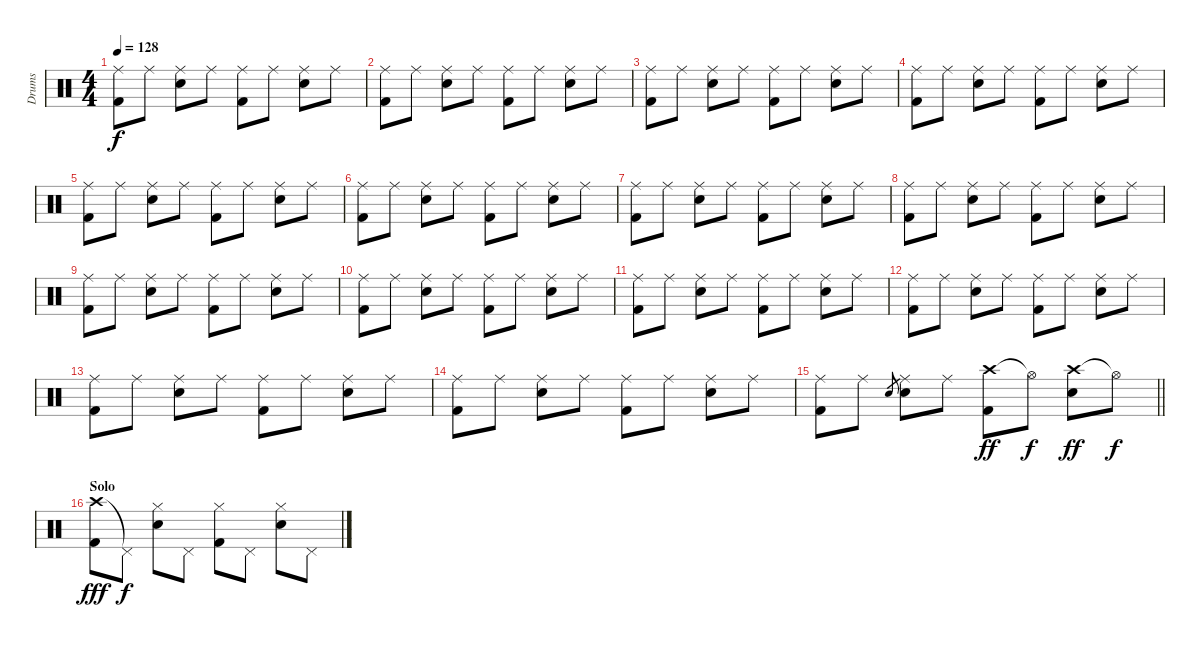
\track ("Drums" "Drums") {instrument percussion}
\staff {score}
\articulation defaults
\ts (4 4)
\tempo 128
\clef neutral
\ks c
("Ride (middle)" "Kick (hit) 2").8{dy f} "Ride (middle)".8 ("Ride (middle)" "Snare (hit) 2").8 "Ride (middle)".8 ("Ride (middle)" "Kick (hit) 2").8 "Ride (middle)".8 ("Ride (middle)" "Snare (hit) 2").8 "Ride (middle)".8 |
("Ride (middle)" "Kick (hit) 2").8 "Ride (middle)".8 ("Ride (middle)" "Snare (hit) 2").8 "Ride (middle)".8 ("Ride (middle)" "Kick (hit) 2").8 "Ride (middle)".8 ("Ride (middle)" "Snare (hit) 2").8 "Ride (middle)".8 |
("Ride (middle)" "Kick (hit) 2").8 "Ride (middle)".8 ("Ride (middle)" "Snare (hit) 2").8 "Ride (middle)".8 ("Ride (middle)" "Kick (hit) 2").8 "Ride (middle)".8 ("Ride (middle)" "Snare (hit) 2").8 "Ride (middle)".8 |
("Ride (middle)" "Kick (hit) 2").8 "Ride (middle)".8 ("Ride (middle)" "Snare (hit) 2").8 "Ride (middle)".8 ("Ride (middle)" "Kick (hit) 2").8 "Ride (middle)".8 ("Ride (middle)" "Snare (hit) 2").8 "Ride (middle)".8 |
("Ride (middle)" "Kick (hit) 2").8 "Ride (middle)".8 ("Ride (middle)" "Snare (hit) 2").8 "Ride (middle)".8 ("Ride (middle)" "Kick (hit) 2").8 "Ride (middle)".8 ("Ride (middle)" "Snare (hit) 2").8 "Ride (middle)".8 |
("Ride (middle)" "Kick (hit) 2").8 "Ride (middle)".8 ("Ride (middle)" "Snare (hit) 2").8 "Ride (middle)".8 ("Ride (middle)" "Kick (hit) 2").8 "Ride (middle)".8 ("Ride (middle)" "Snare (hit) 2").8 "Ride (middle)".8 |
("Ride (middle)" "Kick (hit) 2").8 "Ride (middle)".8 ("Ride (middle)" "Snare (hit) 2").8 "Ride (middle)".8 ("Ride (middle)" "Kick (hit) 2").8 "Ride (middle)".8 ("Ride (middle)" "Snare (hit) 2").8 "Ride (middle)".8 |
("Ride (middle)" "Kick (hit) 2").8 "Ride (middle)".8 ("Ride (middle)" "Snare (hit) 2").8 "Ride (middle)".8 ("Ride (middle)" "Kick (hit) 2").8 "Ride (middle)".8 ("Ride (middle)" "Snare (hit) 2").8 "Ride (middle)".8 |
("Ride (middle)" "Kick (hit) 2").8 "Ride (middle)".8 ("Ride (middle)" "Snare (hit) 2").8 "Ride (middle)".8 ("Ride (middle)" "Kick (hit) 2").8 "Ride (middle)".8 ("Ride (middle)" "Snare (hit) 2").8 "Ride (middle)".8 |
("Ride (middle)" "Kick (hit) 2").8 "Ride (middle)".8 ("Ride (middle)" "Snare (hit) 2").8 "Ride (middle)".8 ("Ride (middle)" "Kick (hit) 2").8 "Ride (middle)".8 ("Ride (middle)" "Snare (hit) 2").8 "Ride (middle)".8 |
("Ride (middle)" "Kick (hit) 2").8 "Ride (middle)".8 ("Ride (middle)" "Snare (hit) 2").8 "Ride (middle)".8 ("Ride (middle)" "Kick (hit) 2").8 "Ride (middle)".8 ("Ride (middle)" "Snare (hit) 2").8 "Ride (middle)".8 |
("Ride (middle)" "Kick (hit) 2").8 "Ride (middle)".8 ("Ride (middle)" "Snare (hit) 2").8 "Ride (middle)".8 ("Ride (middle)" "Kick (hit) 2").8 "Ride (middle)".8 ("Ride (middle)" "Snare (hit) 2").8 "Ride (middle)".8 |
("Ride (middle)" "Kick (hit) 2").8 "Ride (middle)".8 ("Ride (middle)" "Snare (hit) 2").8 "Ride (middle)".8 ("Ride (middle)" "Kick (hit) 2").8 "Ride (middle)".8 ("Ride (middle)" "Snare (hit) 2").8 "Ride (middle)".8 |
("Ride (middle)" "Kick (hit) 2").8 "Ride (middle)".8 ("Ride (middle)" "Snare (hit) 2").8 "Ride (middle)".8 ("Ride (middle)" "Kick (hit) 2").8 "Ride (middle)".8 ("Ride (middle)" "Snare (hit) 2").8 "Ride (middle)".8 |
\barLineRight lightlight
("Ride (middle)" "Kick (hit) 2").8 "Ride (middle)".8 "Snare (hit) 2".8{gr} ("Ride (middle)" "Snare (hit) 2").8 "Ride (middle)".8 ("Crash high (hit)" "Kick (hit) 2").8{dy ff} "Hi-Hat (open)"{t}.8{dy f} ("Crash high (hit)" "Snare (hit) 2").8{dy ff} "Hi-Hat (open)"{t}.8{dy f} |
\section ("" "Solo")
("Crash high (hit)" "Kick (hit) 2").8{dy fff} "Pedal Hi-Hat (hit)"{t}.8{dy f} ("Hi-Hat (closed)" "Snare (hit) 2").8 "Pedal Hi-Hat (hit)".8 ("Hi-Hat (closed)" "Kick (hit) 2").8 "Pedal Hi-Hat (hit)".8 ("Hi-Hat (closed)" "Snare (hit) 2").8 "Pedal Hi-Hat (hit)".8
